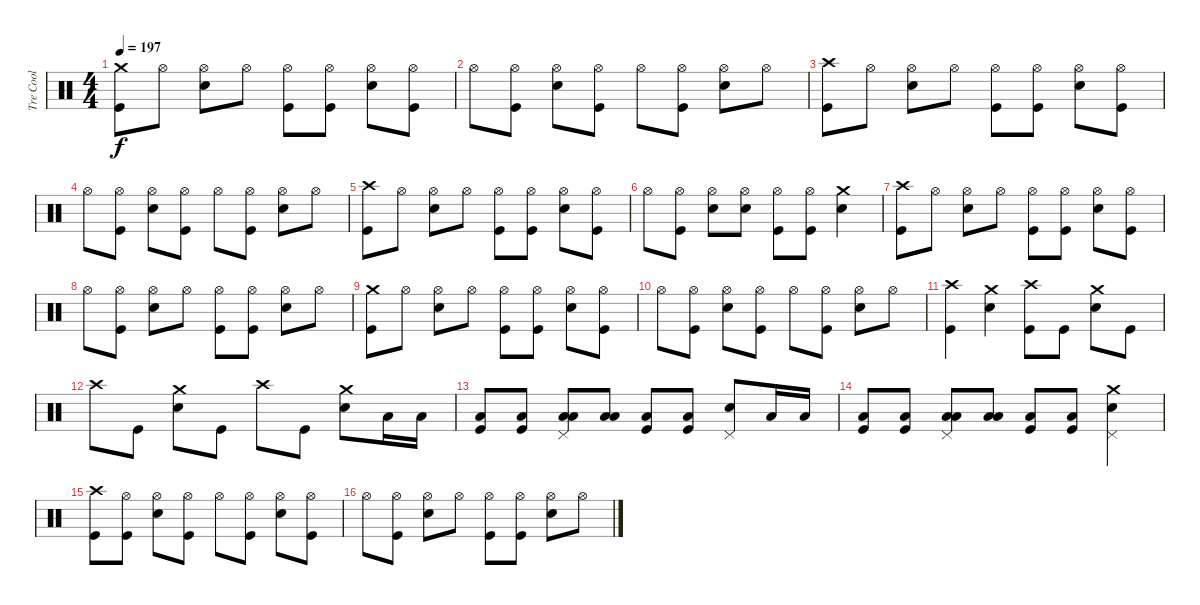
\track ("Tre Cool" "Tre Cool") {instrument percussion}
\staff {score}
\articulation defaults
\ts (4 4)
\tempo 197
\clef neutral
\ks c
("Crash medium (hit)" "Kick (hit)").8{dy f} "Hi-Hat (open)".8 ("Hi-Hat (open)" "Electric Snare (hit)").8 "Hi-Hat (open)".8 ("Hi-Hat (open)" "Kick (hit)").8 ("Hi-Hat (open)" "Kick (hit)").8 ("Hi-Hat (open)" "Electric Snare (hit)").8 ("Hi-Hat (open)" "Kick (hit)").8 |
"Hi-Hat (open)".8 ("Hi-Hat (open)" "Kick (hit)").8 ("Hi-Hat (open)" "Electric Snare (hit)").8 ("Hi-Hat (open)" "Kick (hit)").8 "Hi-Hat (open)".8 ("Hi-Hat (open)" "Kick (hit)").8 ("Hi-Hat (open)" "Electric Snare (hit)").8 "Hi-Hat (open)".8 |
("Crash high (hit)" "Kick (hit)").8 "Hi-Hat (open)".8 ("Hi-Hat (open)" "Electric Snare (hit)").8 "Hi-Hat (open)".8 ("Hi-Hat (open)" "Kick (hit)").8 ("Hi-Hat (open)" "Kick (hit)").8 ("Hi-Hat (open)" "Electric Snare (hit)").8 ("Hi-Hat (open)" "Kick (hit)").8 |
"Hi-Hat (open)".8 ("Hi-Hat (open)" "Kick (hit)").8 ("Hi-Hat (open)" "Electric Snare (hit)").8 ("Hi-Hat (open)" "Kick (hit)").8 "Hi-Hat (open)".8 ("Hi-Hat (open)" "Kick (hit)").8 ("Hi-Hat (open)" "Electric Snare (hit)").8 "Hi-Hat (open)".8 |
("Crash high (hit)" "Kick (hit)").8 "Hi-Hat (open)".8 ("Hi-Hat (open)" "Electric Snare (hit)").8 "Hi-Hat (open)".8 ("Hi-Hat (open)" "Kick (hit)").8 ("Hi-Hat (open)" "Kick (hit)").8 ("Hi-Hat (open)" "Electric Snare (hit)").8 ("Hi-Hat (open)" "Kick (hit)").8 |
"Hi-Hat (open)".8 ("Hi-Hat (open)" "Kick (hit)").8 ("Hi-Hat (open)" "Electric Snare (hit)").8 ("Hi-Hat (open)" "Electric Snare (hit)").8 ("Hi-Hat (open)" "Kick (hit)").8 ("Hi-Hat (open)" "Kick (hit)").8 ("Crash medium (hit)" "Electric Snare (hit)").4 |
("Crash high (hit)" "Kick (hit)").8 "Hi-Hat (open)".8 ("Hi-Hat (open)" "Electric Snare (hit)").8 "Hi-Hat (open)".8 ("Hi-Hat (open)" "Kick (hit)").8 ("Hi-Hat (open)" "Kick (hit)").8 ("Hi-Hat (open)" "Electric Snare (hit)").8 ("Hi-Hat (open)" "Kick (hit)").8 |
"Hi-Hat (open)".8 ("Hi-Hat (open)" "Kick (hit)").8 ("Hi-Hat (open)" "Electric Snare (hit)").8 "Hi-Hat (open)".8 ("Hi-Hat (open)" "Kick (hit)").8 ("Hi-Hat (open)" "Kick (hit)").8 ("Hi-Hat (open)" "Electric Snare (hit)").8 "Hi-Hat (open)".8 |
("Crash medium (hit)" "Kick (hit)").8 "Hi-Hat (open)".8 ("Hi-Hat (open)" "Electric Snare (hit)").8 "Hi-Hat (open)".8 ("Hi-Hat (open)" "Kick (hit)").8 ("Hi-Hat (open)" "Kick (hit)").8 ("Hi-Hat (open)" "Electric Snare (hit)").8 ("Hi-Hat (open)" "Kick (hit)").8 |
"Hi-Hat (open)".8 ("Hi-Hat (open)" "Kick (hit)").8 ("Hi-Hat (open)" "Electric Snare (hit)").8 ("Hi-Hat (open)" "Kick (hit)").8 "Hi-Hat (open)".8 ("Hi-Hat (open)" "Kick (hit)").8 ("Hi-Hat (open)" "Electric Snare (hit)").8 "Hi-Hat (open)".8 |
("Crash high (hit)" "Kick (hit)").4 ("Crash medium (hit)" "Electric Snare (hit)").4 ("Crash high (hit)" "Kick (hit)").8 "Kick (hit)".8 ("Crash medium (hit)" "Electric Snare (hit)").8 "Kick (hit)".8 |
"Crash high (hit)".8 "Kick (hit)".8 ("Crash medium (hit)" "Electric Snare (hit)").8 "Kick (hit)".8 "Crash high (hit)".8 "Kick (hit)".8 ("Crash medium (hit)" "Electric Snare (hit)").8 "Low Floor Tom (hit)".16 "Low Floor Tom (hit)".16 |
("Low Floor Tom (hit)" "Kick (hit)").8 ("Low Floor Tom (hit)" "Kick (hit)").8 ("Low Tom (hit)" "Low Floor Tom (hit)" "Pedal Hi-Hat (hit)").8 ("Low Tom (hit)" "Low Floor Tom (hit)").8 ("Low Floor Tom (hit)" "Kick (hit)").8 ("Low Floor Tom (hit)" "Kick (hit)").8 ("Electric Snare (hit)" "Pedal Hi-Hat (hit)").8 "Low Floor Tom (hit)".16 "Low Floor Tom (hit)".16 |
("Low Floor Tom (hit)" "Kick (hit)").8 ("Low Floor Tom (hit)" "Kick (hit)").8 ("Low Tom (hit)" "Low Floor Tom (hit)" "Pedal Hi-Hat (hit)").8 ("Low Tom (hit)" "Low Floor Tom (hit)").8 ("Low Floor Tom (hit)" "Kick (hit)").8 ("Low Floor Tom (hit)" "Kick (hit)").8 ("Crash medium (hit)" "Electric Snare (hit)" "Pedal Hi-Hat (hit)").4 |
("Crash high (hit)" "Kick (hit)").8 ("Hi-Hat (open)" "Kick (hit)").8 ("Hi-Hat (open)" "Electric Snare (hit)").8 ("Hi-Hat (open)" "Kick (hit)").8 "Hi-Hat (open)".8 ("Hi-Hat (open)" "Kick (hit)").8 ("Hi-Hat (open)" "Electric Snare (hit)").8 ("Hi-Hat (open)" "Kick (hit)").8 |
"Hi-Hat (open)".8 ("Hi-Hat (open)" "Kick (hit)").8 ("Hi-Hat (open)" "Electric Snare (hit)").8 "Hi-Hat (open)".8 ("Hi-Hat (open)" "Kick (hit)").8 ("Hi-Hat (open)" "Kick (hit)").8 ("Hi-Hat (open)" "Electric Snare (hit)").8 "Hi-Hat (open)".8
